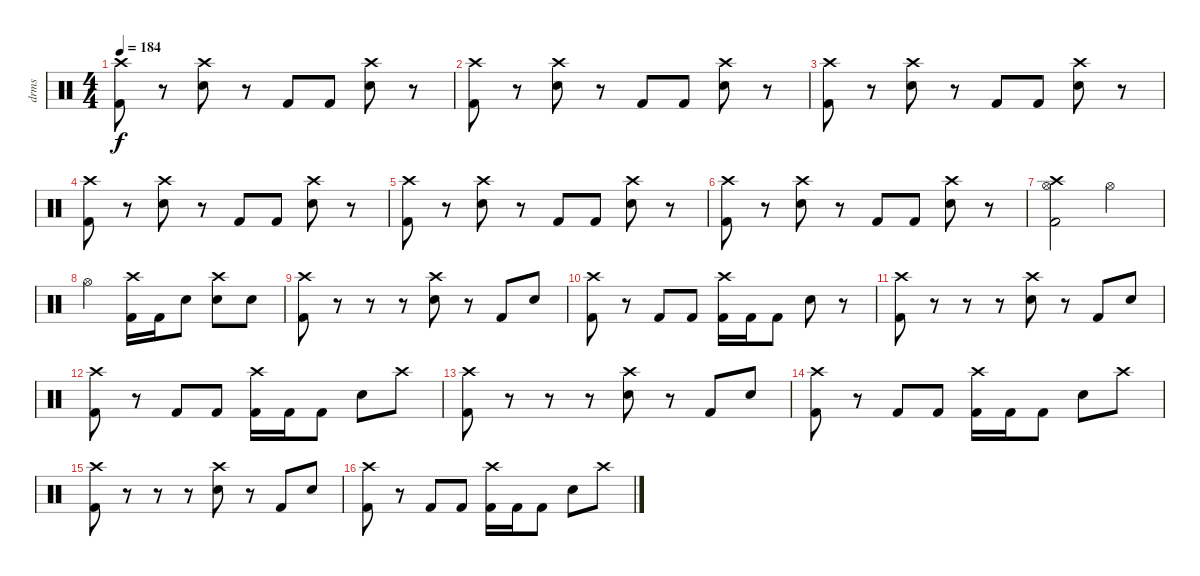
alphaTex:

\track ("drms" "drms") {instrument percussion}
\staff {score}
\articulation defaults
\ts (4 4)
\tempo 184
\clef neutral
\ks c
("Crash high (hit)" "Kick (hit) 2").8{dy f} r.8 ("Crash high (hit)" "Snare (hit) 2").8 r.8 "Kick (hit) 2".8 "Kick (hit) 2".8 ("Crash high (hit)" "Snare (hit) 2").8 r.8 |
("Crash high (hit)" "Kick (hit) 2").8 r.8 ("Crash high (hit)" "Snare (hit) 2").8 r.8 "Kick (hit) 2".8 "Kick (hit) 2".8 ("Crash high (hit)" "Snare (hit) 2").8 r.8 |
("Crash high (hit)" "Kick (hit) 2").8 r.8 ("Crash high (hit)" "Snare (hit) 2").8 r.8 "Kick (hit) 2".8 "Kick (hit) 2".8 ("Crash high (hit)" "Snare (hit) 2").8 r.8 |
("Crash high (hit)" "Kick (hit) 2").8 r.8 ("Crash high (hit)" "Snare (hit) 2").8 r.8 "Kick (hit) 2".8 "Kick (hit) 2".8 ("Crash high (hit)" "Snare (hit) 2").8 r.8 |
("Crash high (hit)" "Kick (hit) 2").8 r.8 ("Crash high (hit)" "Snare (hit) 2").8 r.8 "Kick (hit) 2".8 "Kick (hit) 2".8 ("Crash high (hit)" "Snare (hit) 2").8 r.8 |
("Crash high (hit)" "Kick (hit) 2").8 r.8 ("Crash high (hit)" "Snare (hit) 2").8 r.8 "Kick (hit) 2".8 "Kick (hit) 2".8 ("Crash high (hit)" "Snare (hit) 2").8 r.8 |
("Crash high (hit)" "Hi-Hat (open)" "Kick (hit) 2").2 "Hi-Hat (open)".2 |
"Hi-Hat (open)".2 ("Crash high (hit)" "Kick (hit) 2").16 "Kick (hit) 2".16 "Snare (hit) 2".8 ("Crash high (hit)" "Snare (hit) 2").8 "Snare (hit) 2".8 |
("Crash high (hit)" "Kick (hit) 2").8 r.8 r.8 r.8 ("Crash high (hit)" "Snare (hit) 2").8 r.8 "Kick (hit) 2".8 "Snare (hit) 2".8 |
("Crash high (hit)" "Kick (hit) 2").8 r.8 "Kick (hit) 2".8 "Kick (hit) 2".8 ("Crash high (hit)" "Kick (hit) 2").16 "Kick (hit) 2".16 "Kick (hit) 2".8 "Snare (hit) 2".8 r.8 |
("Crash high (hit)" "Kick (hit) 2").8 r.8 r.8 r.8 ("Crash high (hit)" "Snare (hit) 2").8 r.8 "Kick (hit) 2".8 "Snare (hit) 2".8 |
("Crash high (hit)" "Kick (hit) 2").8 r.8 "Kick (hit) 2".8 "Kick (hit) 2".8 ("Crash high (hit)" "Kick (hit) 2").16 "Kick (hit) 2".16 "Kick (hit) 2".8 "Snare (hit) 2".8 "Crash high (hit)".8 |
("Crash high (hit)" "Kick (hit) 2").8 r.8 r.8 r.8 ("Crash high (hit)" "Snare (hit) 2").8 r.8 "Kick (hit) 2".8 "Snare (hit) 2".8 |
("Crash high (hit)" "Kick (hit) 2").8 r.8 "Kick (hit) 2".8 "Kick (hit) 2".8 ("Crash high (hit)" "Kick (hit) 2").16 "Kick (hit) 2".16 "Kick (hit) 2".8 "Snare (hit) 2".8 "Crash high (hit)".8 |
("Crash high (hit)" "Kick (hit) 2").8 r.8 r.8 r.8 ("Crash high (hit)" "Snare (hit) 2").8 r.8 "Kick (hit) 2".8 "Snare (hit) 2".8 |
("Crash high (hit)" "Kick (hit) 2").8 r.8 "Kick (hit) 2".8 "Kick (hit) 2".8 ("Crash high (hit)" "Kick (hit) 2").16 "Kick (hit) 2".16 "Kick (hit) 2".8 "Snare (hit) 2".8 "Crash high (hit)".8
